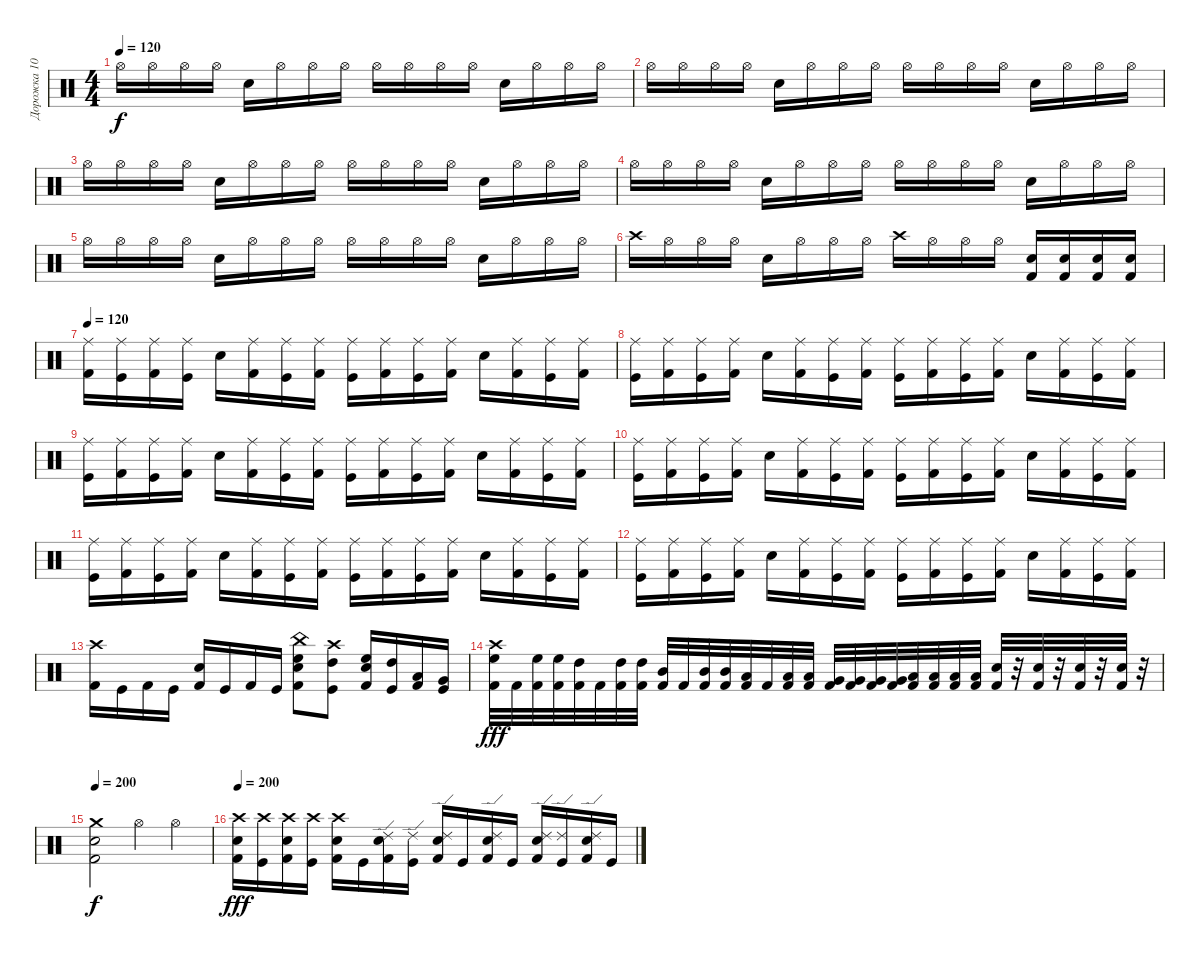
\track ("Дорожка 10" "Дорожка 10") {instrument percussion}
\staff {score}
\articulation defaults
\ts (4 4)
\tempo 120
\clef neutral
\ks c "Hi-Hat (open)".16{dy f} "Hi-Hat (open)".16 "Hi-Hat (open)".16 "Hi-Hat (open)".16 "Electric Snare (hit)".16 "Hi-Hat (open)".16 "Hi-Hat (open)".16 "Hi-Hat (open)".16 "Hi-Hat (open)".16 "Hi-Hat (open)".16 "Hi-Hat (open)".16 "Hi-Hat (open)".16 "Electric Snare (hit)".16 "Hi-Hat (open)".16 "Hi-Hat (open)".16 "Hi-Hat (open)".16
|
"Hi-Hat (open)".16 "Hi-Hat (open)".16 "Hi-Hat (open)".16 "Hi-Hat (open)".16 "Electric Snare (hit)".16 "Hi-Hat (open)".16 "Hi-Hat (open)".16 "Hi-Hat (open)".16 "Hi-Hat (open)".16 "Hi-Hat (open)".16 "Hi-Hat (open)".16 "Hi-Hat (open)".16 "Electric Snare (hit)".16 "Hi-Hat (open)".16 "Hi-Hat (open)".16 "Hi-Hat (open)".16 |
"Hi-Hat (open)".16 "Hi-Hat (open)".16 "Hi-Hat (open)".16 "Hi-Hat (open)".16 "Electric Snare (hit)".16 "Hi-Hat (open)".16 "Hi-Hat (open)".16 "Hi-Hat (open)".16 "Hi-Hat (open)".16 "Hi-Hat (open)".16 "Hi-Hat (open)".16 "Hi-Hat (open)".16 "Electric Snare (hit)".16 "Hi-Hat (open)".16 "Hi-Hat (open)".16 "Hi-Hat (open)".16 |
"Hi-Hat (open)".16 "Hi-Hat (open)".16 "Hi-Hat (open)".16 "Hi-Hat (open)".16 "Electric Snare (hit)".16 "Hi-Hat (open)".16 "Hi-Hat (open)".16 "Hi-Hat (open)".16 "Hi-Hat (open)".16 "Hi-Hat (open)".16 "Hi-Hat (open)".16 "Hi-Hat (open)".16 "Electric Snare (hit)".16 "Hi-Hat (open)".16 "Hi-Hat (open)".16 "Hi-Hat (open)".16 |
"Hi-Hat (open)".16 "Hi-Hat (open)".16 "Hi-Hat (open)".16 "Hi-Hat (open)".16 "Electric Snare (hit)".16 "Hi-Hat (open)".16 "Hi-Hat (open)".16 "Hi-Hat (open)".16 "Hi-Hat (open)".16 "Hi-Hat (open)".16 "Hi-Hat (open)".16 "Hi-Hat (open)".16 "Electric Snare (hit)".16 "Hi-Hat (open)".16 "Hi-Hat (open)".16 "Hi-Hat (open)".16 |
"Crash high (hit)".16 "Hi-Hat (open)".16 "Hi-Hat (open)".16 "Hi-Hat (open)".16 "Electric Snare (hit)".16 "Hi-Hat (open)".16 "Hi-Hat (open)".16 "Hi-Hat (open)".16 "Crash high (hit)".16 "Hi-Hat (open)".16 "Hi-Hat (open)".16 "Hi-Hat (open)".16 ("Kick (hit) 2" "Electric Snare (hit)").16 ("Kick (hit) 2" "Electric Snare (hit)").16 ("Kick (hit) 2" "Electric Snare (hit)").16 ("Kick (hit) 2" "Electric Snare (hit)").16 |
\tempo 120
("Kick (hit) 2" "Ride (middle)").16 ("Kick (hit)" "Ride (middle)").16 ("Ride (middle)" "Kick (hit) 2").16 ("Kick (hit)" "Ride (middle)").16 "Electric Snare (hit)".16 ("Ride (middle)" "Kick (hit) 2").16 ("Ride (middle)" "Kick (hit)").16 ("Kick (hit) 2" "Ride (middle)").16 ("Ride (middle)" "Kick (hit)").16 ("Kick (hit) 2" "Ride (middle)").16 ("Ride (middle)" "Kick (hit)").16 ("Ride (middle)" "Kick (hit) 2").16 "Electric Snare (hit)".16 ("Kick (hit) 2" "Ride (middle)").16 ("Ride (middle)" "Kick (hit)").16 ("Kick (hit) 2" "Ride (middle)").16 |
("Ride (middle)" "Kick (hit)").16 ("Kick (hit) 2" "Ride (middle)").16 ("Kick (hit)" "Ride (middle)").16 ("Kick (hit) 2" "Ride (middle)").16 "Electric Snare (hit)".16 ("Ride (middle)" "Kick (hit) 2").16 ("Kick (hit)" "Ride (middle)").16 ("Kick (hit) 2" "Ride (middle)").16 ("Kick (hit)" "Ride (middle)").16 ("Ride (middle)" "Kick (hit) 2").16 ("Ride (middle)" "Kick (hit)").16 ("Kick (hit) 2" "Ride (middle)").16 "Electric Snare (hit)".16 ("Ride (middle)" "Kick (hit) 2").16 ("Kick (hit)" "Ride (middle)").16 ("Kick (hit) 2" "Ride (middle)").16 |
("Kick (hit)" "Ride (middle)").16 ("Ride (middle)" "Kick (hit) 2").16 ("Ride (middle)" "Kick (hit)").16 ("Kick (hit) 2" "Ride (middle)").16 "Electric Snare (hit)".16 ("Ride (middle)" "Kick (hit) 2").16 ("Kick (hit)" "Ride (middle)").16 ("Kick (hit) 2" "Ride (middle)").16 ("Ride (middle)" "Kick (hit)").16 ("Ride (middle)" "Kick (hit) 2").16 ("Kick (hit)" "Ride (middle)").16 ("Kick (hit) 2" "Ride (middle)").16 "Electric Snare (hit)".16 ("Kick (hit) 2" "Ride (middle)").16 ("Ride (middle)" "Kick (hit)").16 ("Ride (middle)" "Kick (hit) 2").16 |
("Kick (hit)" "Ride (middle)").16 ("Kick (hit) 2" "Ride (middle)").16 ("Kick (hit)" "Ride (middle)").16 ("Ride (middle)" "Kick (hit) 2").16 "Electric Snare (hit)".16 ("Ride (middle)" "Kick (hit) 2").16 ("Ride (middle)" "Kick (hit)").16 ("Ride (middle)" "Kick (hit) 2").16 ("Ride (middle)" "Kick (hit)").16 ("Kick (hit) 2" "Ride (middle)").16 ("Ride (middle)" "Kick (hit)").16 ("Kick (hit) 2" "Ride (middle)").16 "Electric Snare (hit)".16 ("Kick (hit) 2" "Ride (middle)").16 ("Kick (hit)" "Ride (middle)").16 ("Kick (hit) 2" "Ride (middle)").16 |
("Kick (hit)" "Ride (middle)").16 ("Ride (middle)" "Kick (hit) 2").16 ("Kick (hit)" "Ride (middle)").16 ("Ride (middle)" "Kick (hit) 2").16 "Electric Snare (hit)".16 ("Kick (hit) 2" "Ride (middle)").16 ("Kick (hit)" "Ride (middle)").16 ("Ride (middle)" "Kick (hit) 2").16 ("Kick (hit)" "Ride (middle)").16 ("Ride (middle)" "Kick (hit) 2").16 ("Kick (hit)" "Ride (middle)").16 ("Kick (hit) 2" "Ride (middle)").16 "Electric Snare (hit)".16 ("Ride (middle)" "Kick (hit) 2").16 ("Kick (hit)" "Ride (middle)").16 ("Ride (middle)" "Kick (hit) 2").16 |
("Ride (middle)" "Kick (hit)").16 ("Ride (middle)" "Kick (hit) 2").16 ("Ride (middle)" "Kick (hit)").16 ("Ride (middle)" "Kick (hit) 2").16 "Electric Snare (hit)".16 ("Ride (middle)" "Kick (hit) 2").16 ("Kick (hit)" "Ride (middle)").16 ("Kick (hit) 2" "Ride (middle)").16 ("Ride (middle)" "Kick (hit)").16 ("Ride (middle)" "Kick (hit) 2").16 ("Ride (middle)" "Kick (hit)").16 ("Ride (middle)" "Kick (hit) 2").16 "Electric Snare (hit)".16 ("Ride (middle)" "Kick (hit) 2").16 ("Kick (hit)" "Ride (middle)").16 ("Ride (middle)" "Kick (hit) 2").16 |
("Kick (hit) 2" "Crash high (hit)").16 "Kick (hit)".16 "Kick (hit) 2".16 "Kick (hit)".16 ("Electric Snare (hit)" "Kick (hit) 2").16 "Kick (hit)".16 "Kick (hit) 2".16 "Kick (hit)".16 ("China (hit)" "Kick (hit) 2" "Electric Snare (hit)" "High Floor Tom (hit)").8 ("High Tom (hit)" "Crash high (hit)" "Kick (hit)").8 ("High Floor Tom (hit)" "Electric Snare (hit)" "Kick (hit) 2").16 ("High Tom (hit)" "Kick (hit)").16 ("Kick (hit) 2" "Low Tom (hit)").16 ("Very Low Tom (hit)" "Kick (hit)").16 |
("Crash high (hit)" "Kick (hit) 2" "High Floor Tom (hit)").32{dy fff} "Kick (hit) 2".32 ("Kick (hit) 2" "High Floor Tom (hit)").32 ("Kick (hit) 2" "High Floor Tom (hit)").32 ("Kick (hit) 2" "High Tom (hit)").32 "Kick (hit) 2".32 ("Kick (hit) 2" "High Tom (hit)").32 ("High Tom (hit)" "Kick (hit) 2").32 ("Kick (hit) 2" "Mid Tom (hit)").32 "Kick (hit) 2".32 ("Kick (hit) 2" "Mid Tom (hit)").32 ("Mid Tom (hit)" "Kick (hit) 2").32 ("Low Tom (hit)" "Kick (hit) 2").32 "Kick (hit) 2".32 ("Kick (hit) 2" "Low Tom (hit)").32 ("Kick (hit) 2" "Low Tom (hit)").32 ("Kick (hit) 2" "Very Low Tom (hit)").32 ("Kick (hit) 2" "Very Low Tom (hit)").32 ("Very Low Tom (hit)" "Kick (hit) 2").32 ("Kick (hit) 2" "Very Low Tom (hit)").32 ("Low Floor Tom (hit)" "Kick (hit) 2").32 ("Kick (hit) 2" "Low Floor Tom (hit)").32 ("Kick (hit) 2" "Low Floor Tom (hit)").32 ("Kick (hit) 2" "Low Floor Tom (hit)").32 ("Kick (hit) 2" "Electric Snare (hit)").32 r.32 ("Electric Snare (hit)" "Kick (hit) 2").32 r.32 ("Kick (hit) 2" "Electric Snare (hit)").32 r.32 ("Electric Snare (hit)" "Kick (hit) 2").32 r.32 |
\tempo 200
("Snare (hit) 2" "Crash medium (hit)" "Kick (hit) 2").2{dy f} "Hi-Hat (open)".4 "Hi-Hat (open)".4 |
\tempo 200
("Crash high (hit)" "Kick (hit) 2" "Snare (hit) 2").16{dy fff} ("Kick (hit)" "Crash high (hit)").16 ("Crash high (hit)" "Kick (hit) 2" "Snare (hit) 2").16 ("Kick (hit)" "Crash high (hit)").16 ("Crash high (hit)" "Kick (hit) 2" "Snare (hit) 2").16 "Kick (hit)".16 ("Snare (hit) 2" "Kick (hit) 2" "Ride (edge) 2").16 ("Ride (edge) 2" "Kick (hit)").16 ("Snare (hit) 2" "Kick (hit) 2" "Ride (edge) 2").16 "Kick (hit)".16 ("Kick (hit) 2" "Snare (hit) 2" "Ride (edge) 2").16 "Kick (hit)".16 ("Kick (hit) 2" "Ride (edge) 2" "Snare (hit) 2").16 ("Ride (edge) 2" "Kick (hit)").16 ("Ride (edge) 2" "Kick (hit) 2" "Snare (hit) 2").16 "Kick (hit)".16
